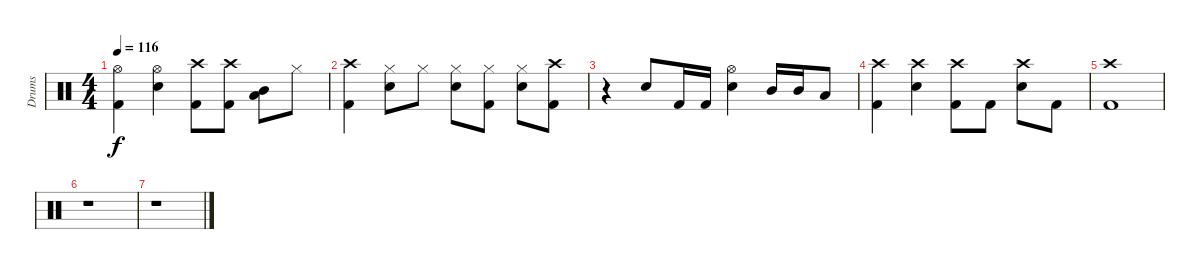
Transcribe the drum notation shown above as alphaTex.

\track ("Drums" "Drums") {instrument percussion}
\staff {score}
\articulation defaults
\ts (4 4)
\tempo 116
\clef neutral
\ks c
("Hi-Hat (open)" "Kick (hit) 2").4{dy f} ("Hi-Hat (open)" "Snare (hit) 2").4 ("Crash high (hit)" "Kick (hit) 2").8 ("Crash high (hit)" "Kick (hit) 2").8 ("Low Tom (hit)" "Mid Tom (hit)").8 "Hi-Hat (closed)".8 |
("Crash high (hit)" "Kick (hit) 2").4 ("Hi-Hat (closed)" "Snare (hit) 2").8 "Hi-Hat (closed)".8 ("Hi-Hat (closed)" "Snare (hit) 2").8 ("Hi-Hat (closed)" "Kick (hit) 2").8 ("Hi-Hat (closed)" "Snare (hit) 2").8 ("Crash high (hit)" "Kick (hit) 2").8 |
r.4 "Snare (hit) 2".8 "Kick (hit) 2".16 "Kick (hit) 2".16 ("Hi-Hat (open)" "Snare (hit) 2").4 "Mid Tom (hit)".16 "Mid Tom (hit)".16 "Low Tom (hit)".8 |
("Crash high (hit)" "Kick (hit) 2").4 ("Crash high (hit)" "Snare (hit) 2").4 ("Crash high (hit)" "Kick (hit) 2").8 "Kick (hit) 2".8 ("Crash high (hit)" "Snare (hit) 2").8 "Kick (hit) 2".8 |
("Crash high (hit)" "Kick (hit) 2").1 |
r.1 |
r.1
